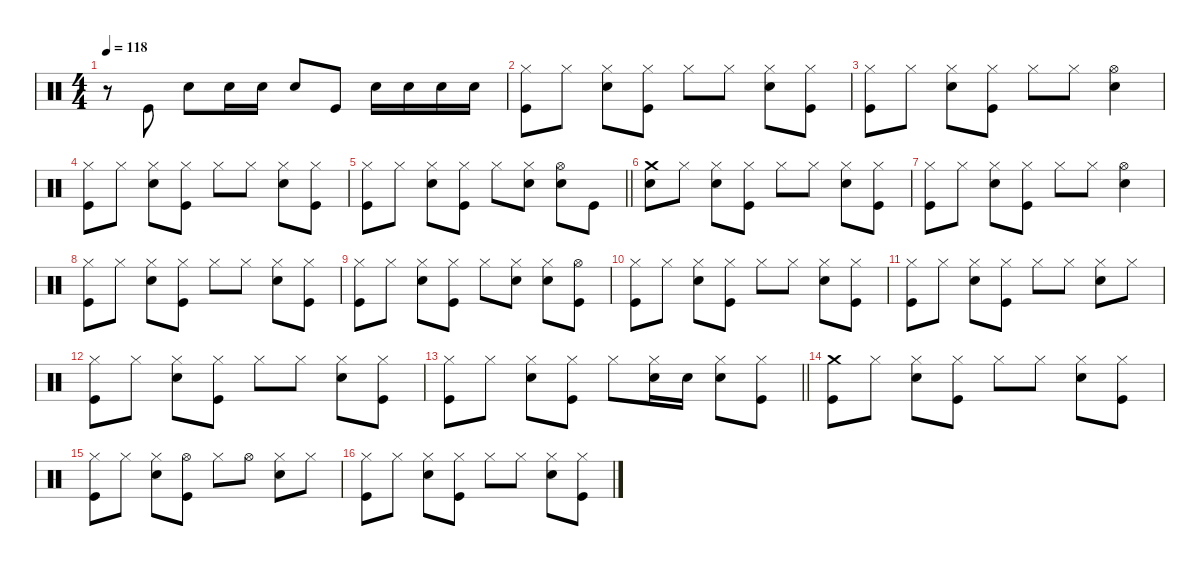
\defaultSystemsLayout 4
\hideDynamics
\bracketExtendMode nobrackets
\singleTrackTrackNamePolicy hidden
\multiTrackTrackNamePolicy hidden
\firstSystemTrackNameMode fullname
\otherSystemsTrackNameOrientation horizontal
\track ("Drums" "drm.") {instrument percussion}
\staff {score}
\articulation defaults
\ts (4 4)
\beaming (8 2 2 2 2)
\tempo 118
\clef neutral
\ks c
r.8{dy f beam Down} "Kick (hit)".8{beam Up} "Snare (hit) 2".8{beam Down} "Snare (hit) 2".16{beam Down} "Snare (hit) 2".16{beam Down} "Snare (hit) 2".8{beam Up} "Kick (hit)".8{beam Up} "Snare (hit) 2".16{beam Down} "Snare (hit) 2".16{beam Down} "Snare (hit) 2".16{beam Down} "Snare (hit) 2".16{beam Down} |
("Hi-Hat (closed)" "Kick (hit)").8{beam Down} "Hi-Hat (closed)".8{beam Down} ("Hi-Hat (closed)" "Snare (hit) 2").8{beam Down} ("Hi-Hat (closed)" "Kick (hit)").8{beam Down} "Hi-Hat (closed)".8{dy ff beam Down} "Hi-Hat (closed)".8{dy f beam Down} ("Hi-Hat (closed)" "Snare (hit) 2").8{beam Down} ("Hi-Hat (closed)" "Kick (hit)").8{beam Down} |
("Hi-Hat (closed)" "Kick (hit)").8{beam Down} "Hi-Hat (closed)".8{beam Down} ("Hi-Hat (closed)" "Snare (hit) 2").8{beam Down} ("Hi-Hat (closed)" "Kick (hit)").8{beam Down} "Hi-Hat (closed)".8{dy ff beam Down} "Hi-Hat (closed)".8{dy f beam Down} ("Hi-Hat (open)" "Snare (hit) 2").4{beam Down} |
("Hi-Hat (closed)" "Kick (hit)").8{beam Down} "Hi-Hat (closed)".8{beam Down} ("Hi-Hat (closed)" "Snare (hit) 2").8{beam Down} ("Hi-Hat (closed)" "Kick (hit)").8{beam Down} "Hi-Hat (closed)".8{beam Down} "Hi-Hat (closed)".8{beam Down} ("Hi-Hat (closed)" "Snare (hit) 2").8{beam Down} ("Hi-Hat (closed)" "Kick (hit)").8{beam Down} |
\barLineRight lightlight
("Hi-Hat (closed)" "Kick (hit)").8{beam Down} "Hi-Hat (closed)".8{beam Down} ("Hi-Hat (closed)" "Snare (hit) 2").8{beam Down} ("Hi-Hat (closed)" "Kick (hit)").8{beam Down} "Hi-Hat (closed)".8{beam Down} ("Hi-Hat (closed)" "Snare (hit) 2").8{beam Down} ("Hi-Hat (open)" "Snare (hit) 2").8{beam Down} "Kick (hit)".8{beam Down} |
("Crash medium (hit)" "Snare (hit) 2").8{beam Down} "Hi-Hat (closed)".8{beam Down} ("Hi-Hat (closed)" "Snare (hit) 2").8{beam Down} ("Hi-Hat (closed)" "Kick (hit)").8{beam Down} "Hi-Hat (closed)".8{beam Down} "Hi-Hat (closed)".8{beam Down} ("Hi-Hat (closed)" "Snare (hit) 2").8{beam Down} ("Hi-Hat (closed)" "Kick (hit)").8{beam Down} |
("Hi-Hat (closed)" "Kick (hit)").8{beam Down} "Hi-Hat (closed)".8{beam Down} ("Hi-Hat (closed)" "Snare (hit) 2").8{beam Down} ("Hi-Hat (closed)" "Kick (hit)").8{beam Down} "Hi-Hat (closed)".8{beam Down} "Hi-Hat (closed)".8{beam Down} ("Hi-Hat (open)" "Snare (hit) 2").4{beam Down} |
("Hi-Hat (closed)" "Kick (hit)").8{beam Down} "Hi-Hat (closed)".8{beam Down} ("Hi-Hat (closed)" "Snare (hit) 2").8{beam Down} ("Hi-Hat (closed)" "Kick (hit)").8{beam Down} "Hi-Hat (closed)".8{beam Down} "Hi-Hat (closed)".8{beam Down} ("Hi-Hat (closed)" "Snare (hit) 2").8{beam Down} ("Hi-Hat (closed)" "Kick (hit)").8{beam Down} |
("Hi-Hat (closed)" "Kick (hit)").8{beam Down} "Hi-Hat (closed)".8{beam Down} ("Hi-Hat (closed)" "Snare (hit) 2").8{beam Down} ("Hi-Hat (closed)" "Kick (hit)").8{beam Down} "Hi-Hat (closed)".8{beam Down} ("Hi-Hat (closed)" "Snare (hit) 2").8{beam Down} ("Hi-Hat (closed)" "Snare (hit) 2").8{beam Down} ("Hi-Hat (open)" "Kick (hit)").8{beam Down} |
("Hi-Hat (closed)" "Kick (hit)").8{beam Down} "Hi-Hat (closed)".8{beam Down} ("Hi-Hat (closed)" "Snare (hit) 2").8{beam Down} ("Hi-Hat (closed)" "Kick (hit)").8{beam Down} "Hi-Hat (closed)".8{beam Down} "Hi-Hat (closed)".8{beam Down} ("Hi-Hat (closed)" "Snare (hit) 2").8{beam Down} ("Hi-Hat (closed)" "Kick (hit)").8{beam Down} |
("Hi-Hat (closed)" "Kick (hit)").8{beam Down} "Hi-Hat (closed)".8{beam Down} ("Hi-Hat (closed)" "Snare (hit) 2").8{beam Down} ("Hi-Hat (closed)" "Kick (hit)").8{beam Down} "Hi-Hat (closed)".8{beam Down} "Hi-Hat (closed)".8{beam Down} ("Hi-Hat (closed)" "Snare (hit) 2").8{beam Down} "Hi-Hat (closed)".8{beam Down} |
("Hi-Hat (closed)" "Kick (hit)").8{beam Down} "Hi-Hat (closed)".8{beam Down} ("Hi-Hat (closed)" "Snare (hit) 2").8{beam Down} ("Hi-Hat (closed)" "Kick (hit)").8{beam Down} "Hi-Hat (closed)".8{beam Down} "Hi-Hat (closed)".8{beam Down} ("Hi-Hat (closed)" "Snare (hit) 2").8{beam Down} ("Hi-Hat (closed)" "Kick (hit)").8{beam Down} |
\barLineRight lightlight
("Hi-Hat (closed)" "Kick (hit)").8{beam Down} "Hi-Hat (closed)".8{beam Down} ("Hi-Hat (closed)" "Snare (hit) 2").8{beam Down} ("Hi-Hat (closed)" "Kick (hit)").8{beam Down} "Hi-Hat (closed)".8{beam Down} ("Hi-Hat (closed)" "Snare (hit) 2").16{beam Down} "Snare (hit) 2".16{dy mf beam Down} ("Hi-Hat (closed)" "Snare (hit) 2").8{dy f beam Down} ("Hi-Hat (closed)" "Kick (hit)").8{beam Down} |
("Crash medium (hit)" "Kick (hit)").8{beam Down} "Hi-Hat (closed)".8{beam Down} ("Hi-Hat (closed)" "Snare (hit) 2").8{beam Down} ("Hi-Hat (closed)" "Kick (hit)").8{beam Down} "Hi-Hat (closed)".8{beam Down} "Hi-Hat (closed)".8{beam Down} ("Hi-Hat (closed)" "Snare (hit) 2").8{beam Down} ("Hi-Hat (closed)" "Kick (hit)").8{beam Down} |
("Hi-Hat (closed)" "Kick (hit)").8{beam Down} "Hi-Hat (closed)".8{beam Down} ("Hi-Hat (closed)" "Snare (hit) 2").8{beam Down} ("Hi-Hat (open)" "Kick (hit)").8{beam Down} "Hi-Hat (closed)".8{beam Down} "Hi-Hat (open)".8{beam Down} ("Hi-Hat (closed)" "Snare (hit) 2").8{beam Down} "Hi-Hat (closed)".8{beam Down} |
("Hi-Hat (closed)" "Kick (hit)").8{beam Down} "Hi-Hat (closed)".8{beam Down} ("Hi-Hat (closed)" "Snare (hit) 2").8{beam Down} ("Hi-Hat (closed)" "Kick (hit)").8{beam Down} "Hi-Hat (closed)".8{beam Down} "Hi-Hat (closed)".8{beam Down} ("Hi-Hat (closed)" "Snare (hit) 2").8{beam Down} ("Hi-Hat (closed)" "Kick (hit)").8{beam Down}
